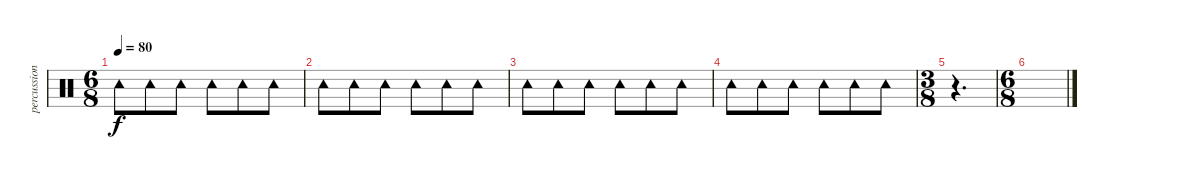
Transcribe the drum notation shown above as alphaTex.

\track ("percussions 2" "percussion") {instrument percussion}
\staff {score}
\articulation defaults
\ts (6 8)
\tempo 80
\clef neutral
\ks c "Tambourine (hit)".8{dy f} "Tambourine (hit)".8 "Tambourine (hit)".8 "Tambourine (hit)".8 "Tambourine (hit)".8 "Tambourine (hit)".8
|
"Tambourine (hit)".8 "Tambourine (hit)".8 "Tambourine (hit)".8 "Tambourine (hit)".8 "Tambourine (hit)".8 "Tambourine (hit)".8 |
"Tambourine (hit)".8 "Tambourine (hit)".8 "Tambourine (hit)".8 "Tambourine (hit)".8 "Tambourine (hit)".8 "Tambourine (hit)".8 |
"Tambourine (hit)".8 "Tambourine (hit)".8 "Tambourine (hit)".8 "Tambourine (hit)".8 "Tambourine (hit)".8 "Tambourine (hit)".8 |
\ts (3 8)
r.4{d} |
\ts (6 8)
